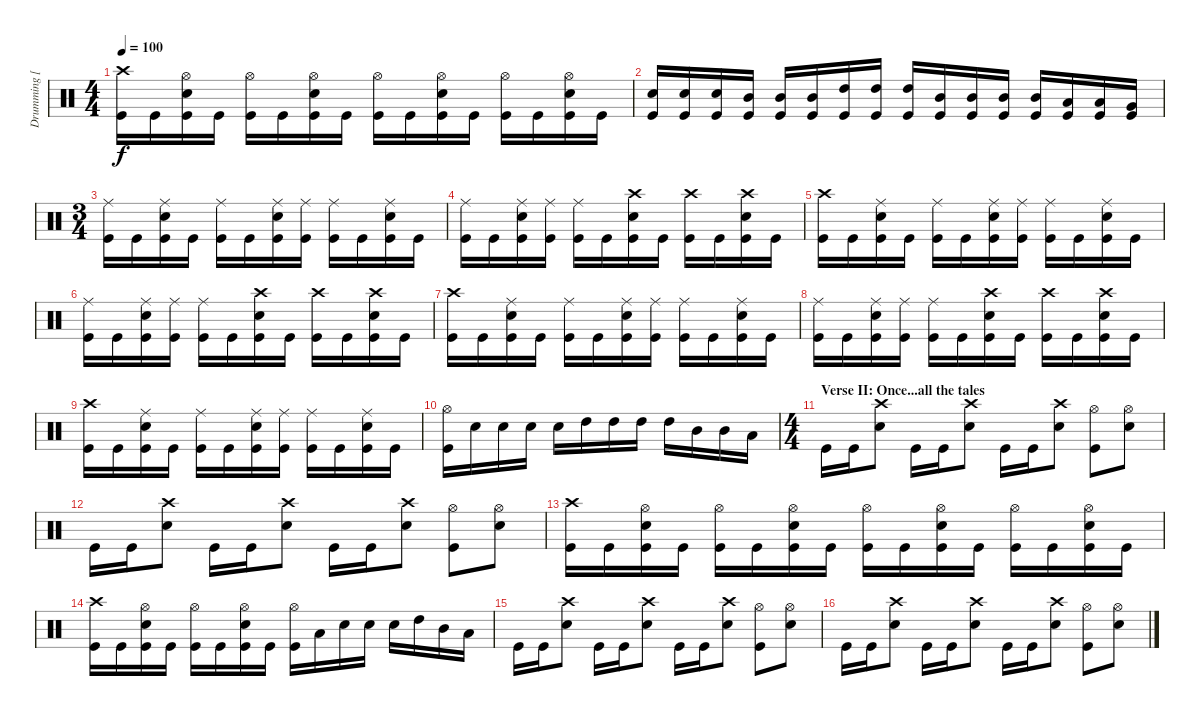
\track ("Drumming [Jukka]" "Drumming [") {instrument percussion}
\staff {score}
\articulation defaults
\ts (4 4)
\tempo 100
\clef neutral
\ks c
("Crash high (hit)" "Kick (hit)").16{dy f} "Kick (hit)".16 ("Hi-Hat (open)" "Electric Snare (hit)" "Kick (hit)").16 "Kick (hit)".16 ("Hi-Hat (open)" "Kick (hit)").16 "Kick (hit)".16 ("Hi-Hat (open)" "Electric Snare (hit)" "Kick (hit)").16 "Kick (hit)".16 ("Hi-Hat (open)" "Kick (hit)").16 "Kick (hit)".16 ("Hi-Hat (open)" "Electric Snare (hit)" "Kick (hit)").16 "Kick (hit)".16 ("Hi-Hat (open)" "Kick (hit)").16 "Kick (hit)".16 ("Hi-Hat (open)" "Electric Snare (hit)" "Kick (hit)").16 "Kick (hit)".16 |
("Electric Snare (hit)" "Kick (hit)").16 ("Electric Snare (hit)" "Kick (hit)").16 ("Electric Snare (hit)" "Kick (hit)").16 ("Mid Tom (hit)" "Kick (hit)").16 ("Mid Tom (hit)" "Kick (hit)").16 ("Mid Tom (hit)" "Kick (hit)").16 ("High Tom (hit)" "Kick (hit)").16 ("High Tom (hit)" "Kick (hit)").16 ("High Tom (hit)" "Kick (hit)").16 ("Mid Tom (hit)" "Kick (hit)").16 ("Mid Tom (hit)" "Kick (hit)").16 ("Mid Tom (hit)" "Kick (hit)").16 ("Mid Tom (hit)" "Kick (hit)").16 ("Low Tom (hit)" "Kick (hit)").16 ("Low Tom (hit)" "Kick (hit)").16 ("Very Low Tom (hit)" "Kick (hit)").16 |
\ts (3 4)
("Ride (middle)" "Kick (hit)").16 "Kick (hit)".16 ("Ride (middle)" "Electric Snare (hit)" "Kick (hit)").16 "Kick (hit)".16 ("Ride (middle)" "Kick (hit)").16 "Kick (hit)".16 ("Ride (middle)" "Electric Snare (hit)" "Kick (hit)").16 ("Ride (middle)" "Kick (hit)").16 ("Ride (middle)" "Kick (hit)").16 "Kick (hit)".16 ("Ride (middle)" "Electric Snare (hit)" "Kick (hit)").16 "Kick (hit)".16 |
("Ride (middle)" "Kick (hit)").16 "Kick (hit)".16 ("Ride (middle)" "Electric Snare (hit)" "Kick (hit)").16 ("Ride (middle)" "Kick (hit)").16 ("Ride (middle)" "Kick (hit)").16 "Kick (hit)".16 ("Crash high (hit)" "Electric Snare (hit)" "Kick (hit)").16 "Kick (hit)".16 ("Crash high (hit)" "Kick (hit)").16 "Kick (hit)".16 ("Crash high (hit)" "Electric Snare (hit)" "Kick (hit)").16 "Kick (hit)".16 |
("Crash high (hit)" "Kick (hit)").16 "Kick (hit)".16 ("Ride (middle)" "Electric Snare (hit)" "Kick (hit)").16 "Kick (hit)".16 ("Ride (middle)" "Kick (hit)").16 "Kick (hit)".16 ("Ride (middle)" "Electric Snare (hit)" "Kick (hit)").16 ("Ride (middle)" "Kick (hit)").16 ("Ride (middle)" "Kick (hit)").16 "Kick (hit)".16 ("Ride (middle)" "Electric Snare (hit)" "Kick (hit)").16 "Kick (hit)".16 |
("Ride (middle)" "Kick (hit)").16 "Kick (hit)".16 ("Ride (middle)" "Electric Snare (hit)" "Kick (hit)").16 ("Ride (middle)" "Kick (hit)").16 ("Ride (middle)" "Kick (hit)").16 "Kick (hit)".16 ("Crash high (hit)" "Electric Snare (hit)" "Kick (hit)").16 "Kick (hit)".16 ("Crash high (hit)" "Kick (hit)").16 "Kick (hit)".16 ("Crash high (hit)" "Electric Snare (hit)" "Kick (hit)").16 "Kick (hit)".16 |
("Crash high (hit)" "Kick (hit)").16 "Kick (hit)".16 ("Ride (middle)" "Electric Snare (hit)" "Kick (hit)").16 "Kick (hit)".16 ("Ride (middle)" "Kick (hit)").16 "Kick (hit)".16 ("Ride (middle)" "Electric Snare (hit)" "Kick (hit)").16 ("Ride (middle)" "Kick (hit)").16 ("Ride (middle)" "Kick (hit)").16 "Kick (hit)".16 ("Ride (middle)" "Electric Snare (hit)" "Kick (hit)").16 "Kick (hit)".16 |
("Ride (middle)" "Kick (hit)").16 "Kick (hit)".16 ("Ride (middle)" "Electric Snare (hit)" "Kick (hit)").16 ("Ride (middle)" "Kick (hit)").16 ("Ride (middle)" "Kick (hit)").16 "Kick (hit)".16 ("Crash high (hit)" "Electric Snare (hit)" "Kick (hit)").16 "Kick (hit)".16 ("Crash high (hit)" "Kick (hit)").16 "Kick (hit)".16 ("Crash high (hit)" "Electric Snare (hit)" "Kick (hit)").16 "Kick (hit)".16 |
("Crash high (hit)" "Kick (hit)").16 "Kick (hit)".16 ("Ride (middle)" "Electric Snare (hit)" "Kick (hit)").16 "Kick (hit)".16 ("Ride (middle)" "Kick (hit)").16 "Kick (hit)".16 ("Ride (middle)" "Electric Snare (hit)" "Kick (hit)").16 ("Ride (middle)" "Kick (hit)").16 ("Ride (middle)" "Kick (hit)").16 "Kick (hit)".16 ("Ride (middle)" "Electric Snare (hit)" "Kick (hit)").16 "Kick (hit)".16 |
("Hi-Hat (open)" "Kick (hit)").16 "Electric Snare (hit)".16 "Electric Snare (hit)".16 "Electric Snare (hit)".16 "Electric Snare (hit)".16 "High Tom (hit)".16 "High Tom (hit)".16 "High Tom (hit)".16 "High Tom (hit)".16 "Mid Tom (hit)".16 "Mid Tom (hit)".16 "Low Tom (hit)".16 |
\ts (4 4)
\section ("" "Verse II: Once...all the tales")
"Kick (hit)".16 "Kick (hit)".16 ("Crash high (hit)" "Electric Snare (hit)").8 "Kick (hit)".16 "Kick (hit)".16 ("Crash high (hit)" "Electric Snare (hit)").8 "Kick (hit)".16 "Kick (hit)".16 ("Crash high (hit)" "Electric Snare (hit)").8 ("Hi-Hat (open)" "Kick (hit)").8 ("Hi-Hat (open)" "Electric Snare (hit)").8 |
"Kick (hit)".16 "Kick (hit)".16 ("Crash high (hit)" "Electric Snare (hit)").8 "Kick (hit)".16 "Kick (hit)".16 ("Crash high (hit)" "Electric Snare (hit)").8 "Kick (hit)".16 "Kick (hit)".16 ("Crash high (hit)" "Electric Snare (hit)").8 ("Hi-Hat (open)" "Kick (hit)").8 ("Hi-Hat (open)" "Electric Snare (hit)").8 |
("Crash high (hit)" "Kick (hit)").16 "Kick (hit)".16 ("Hi-Hat (open)" "Electric Snare (hit)" "Kick (hit)").16 "Kick (hit)".16 ("Hi-Hat (open)" "Kick (hit)").16 "Kick (hit)".16 ("Hi-Hat (open)" "Electric Snare (hit)" "Kick (hit)").16 "Kick (hit)".16 ("Hi-Hat (open)" "Kick (hit)").16 "Kick (hit)".16 ("Hi-Hat (open)" "Electric Snare (hit)" "Kick (hit)").16 "Kick (hit)".16 ("Hi-Hat (open)" "Kick (hit)").16 "Kick (hit)".16 ("Hi-Hat (open)" "Electric Snare (hit)" "Kick (hit)").16 "Kick (hit)".16 |
("Crash high (hit)" "Kick (hit)").16 "Kick (hit)".16 ("Hi-Hat (open)" "Electric Snare (hit)" "Kick (hit)").16 "Kick (hit)".16 ("Hi-Hat (open)" "Kick (hit)").16 "Kick (hit)".16 ("Hi-Hat (open)" "Electric Snare (hit)" "Kick (hit)").16 "Kick (hit)".16 ("Hi-Hat (open)" "Kick (hit)").16 "Low Tom (hit)".16 "Electric Snare (hit)".16 "Electric Snare (hit)".16 "Electric Snare (hit)".16 "High Tom (hit)".16 "Mid Tom (hit)".16 "Low Tom (hit)".16 |
"Kick (hit)".16 "Kick (hit)".16 ("Crash high (hit)" "Electric Snare (hit)").8 "Kick (hit)".16 "Kick (hit)".16 ("Crash high (hit)" "Electric Snare (hit)").8 "Kick (hit)".16 "Kick (hit)".16 ("Crash high (hit)" "Electric Snare (hit)").8 ("Hi-Hat (open)" "Kick (hit)").8 ("Hi-Hat (open)" "Electric Snare (hit)").8 |
"Kick (hit)".16 "Kick (hit)".16 ("Crash high (hit)" "Electric Snare (hit)").8 "Kick (hit)".16 "Kick (hit)".16 ("Crash high (hit)" "Electric Snare (hit)").8 "Kick (hit)".16 "Kick (hit)".16 ("Crash high (hit)" "Electric Snare (hit)").8 ("Hi-Hat (open)" "Kick (hit)").8 ("Hi-Hat (open)" "Electric Snare (hit)").8
